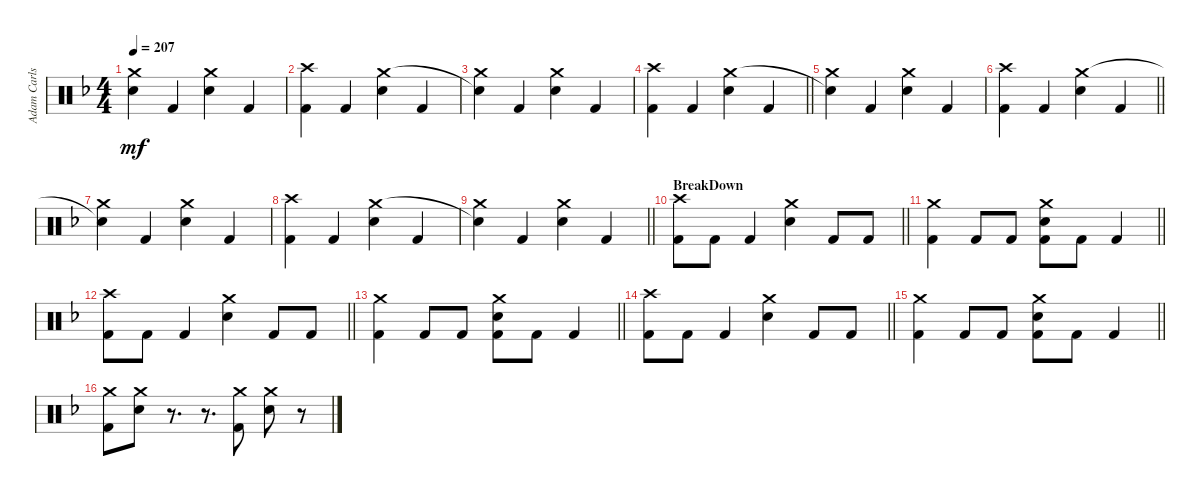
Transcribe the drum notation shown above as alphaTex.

\track ("Adam Carlson" "Adam Carls") {instrument percussion}
\staff {score}
\articulation defaults
\ts (4 4)
\tempo 207
\clef neutral
\ks f
("Crash medium (hit)" "Snare (hit)"{t}).4{dy mf} "Kick (hit) 2".4 ("Electric Snare (hit)" "Crash medium (hit)").4 "Kick (hit) 2".4 |
("Crash high (hit)" "Kick (hit) 2").4 "Kick (hit) 2".4 ("Electric Snare (hit)" "Crash medium (hit)").4 "Kick (hit) 2".4 |
("Crash medium (hit)" "Snare (hit)"{t}).4 "Kick (hit) 2".4 ("Electric Snare (hit)" "Crash medium (hit)").4 "Kick (hit) 2".4 |
\barLineRight lightlight
("Crash high (hit)" "Kick (hit) 2").4 "Kick (hit) 2".4 ("Electric Snare (hit)" "Crash medium (hit)").4 "Kick (hit) 2".4 |
("Crash medium (hit)" "Snare (hit)"{t}).4 "Kick (hit) 2".4 ("Electric Snare (hit)" "Crash medium (hit)").4 "Kick (hit) 2".4 |
\barLineRight lightlight
("Crash high (hit)" "Kick (hit) 2").4 "Kick (hit) 2".4 ("Electric Snare (hit)" "Crash medium (hit)").4 "Kick (hit) 2".4 |
("Crash medium (hit)" "Snare (hit)"{t}).4 "Kick (hit) 2".4 ("Electric Snare (hit)" "Crash medium (hit)").4 "Kick (hit) 2".4 |
("Crash high (hit)" "Kick (hit) 2").4 "Kick (hit) 2".4 ("Electric Snare (hit)" "Crash medium (hit)").4 "Kick (hit) 2".4 |
\barLineRight lightlight
("Crash medium (hit)" "Snare (hit)"{t}).4 "Kick (hit) 2".4 ("Electric Snare (hit)" "Crash medium (hit)").4 "Kick (hit) 2".4 |
\section ("" "BreakDown")
\barLineRight lightlight
("Crash high (hit)" "Kick (hit) 2").8 "Kick (hit) 2".8 "Kick (hit) 2".4 ("Electric Snare (hit)" "Crash medium (hit)").4 "Kick (hit) 2".8 "Kick (hit) 2".8 |
\barLineRight lightlight
("Crash medium (hit)" "Kick (hit) 2").4 "Kick (hit) 2".8 "Kick (hit) 2".8 ("Electric Snare (hit)" "Crash medium (hit)" "Kick (hit) 2").8 "Kick (hit) 2".8 "Kick (hit) 2".4 |
\barLineRight lightlight
("Crash high (hit)" "Kick (hit) 2").8 "Kick (hit) 2".8 "Kick (hit) 2".4 ("Electric Snare (hit)" "Crash medium (hit)").4 "Kick (hit) 2".8 "Kick (hit) 2".8 |
\barLineRight lightlight
("Crash medium (hit)" "Kick (hit) 2").4 "Kick (hit) 2".8 "Kick (hit) 2".8 ("Electric Snare (hit)" "Crash medium (hit)" "Kick (hit) 2").8 "Kick (hit) 2".8 "Kick (hit) 2".4 |
\barLineRight lightlight
("Crash high (hit)" "Kick (hit) 2").8 "Kick (hit) 2".8 "Kick (hit) 2".4 ("Electric Snare (hit)" "Crash medium (hit)").4 "Kick (hit) 2".8 "Kick (hit) 2".8 |
\barLineRight lightlight
("Crash medium (hit)" "Kick (hit) 2").4 "Kick (hit) 2".8 "Kick (hit) 2".8 ("Electric Snare (hit)" "Crash medium (hit)" "Kick (hit) 2").8 "Kick (hit) 2".8 "Kick (hit) 2".4 |
("Crash medium (hit)" "Kick (hit) 2").8 ("Crash medium (hit)" "Electric Snare (hit)").8 r.8{d} r.8{d} ("Crash medium (hit)" "Kick (hit) 2").8 ("Crash medium (hit)" "Electric Snare (hit)").8 r.8
